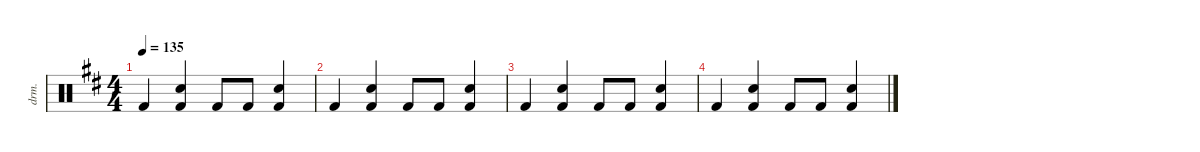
\defaultSystemsLayout 4
\hideDynamics
\bracketExtendMode nobrackets
\otherSystemsTrackNameOrientation horizontal
\track ("Drumkit" "drm.") {instrument percussion}
\staff {score}
\articulation defaults
\ts (4 4)
\tempo 135
\clef neutral
\ks d "Kick (hit) 2"{acc forcenatural}.4{dy mf beam Up}
("Kick (hit) 2"{acc forcenatural} "Snare (hit) 2"{acc forcenatural}).4{beam Up} "Kick (hit) 2"{acc forcenatural}.8{beam Up} "Kick (hit) 2"{acc forcenatural}.8{beam Up} ("Kick (hit) 2"{acc forcenatural} "Snare (hit) 2"{acc forcenatural}).4{beam Up} |
"Kick (hit) 2"{acc forcenatural}.4{beam Up} ("Kick (hit) 2"{acc forcenatural} "Snare (hit) 2"{acc forcenatural}).4{beam Up} "Kick (hit) 2"{acc forcenatural}.8{beam Up} "Kick (hit) 2"{acc forcenatural}.8{beam Up} ("Kick (hit) 2"{acc forcenatural} "Snare (hit) 2"{acc forcenatural}).4{beam Up} |
"Kick (hit) 2"{acc forcenatural}.4{beam Up} ("Kick (hit) 2"{acc forcenatural} "Snare (hit) 2"{acc forcenatural}).4{beam Up} "Kick (hit) 2"{acc forcenatural}.8{beam Up} "Kick (hit) 2"{acc forcenatural}.8{beam Up} ("Kick (hit) 2"{acc forcenatural} "Snare (hit) 2"{acc forcenatural}).4{beam Up} |
"Kick (hit) 2"{acc forcenatural}.4{beam Up} ("Kick (hit) 2"{acc forcenatural} "Snare (hit) 2"{acc forcenatural}).4{beam Up} "Kick (hit) 2"{acc forcenatural}.8{beam Up} "Kick (hit) 2"{acc forcenatural}.8{beam Up} ("Kick (hit) 2"{acc forcenatural} "Snare (hit) 2"{acc forcenatural}).4{beam Up}
